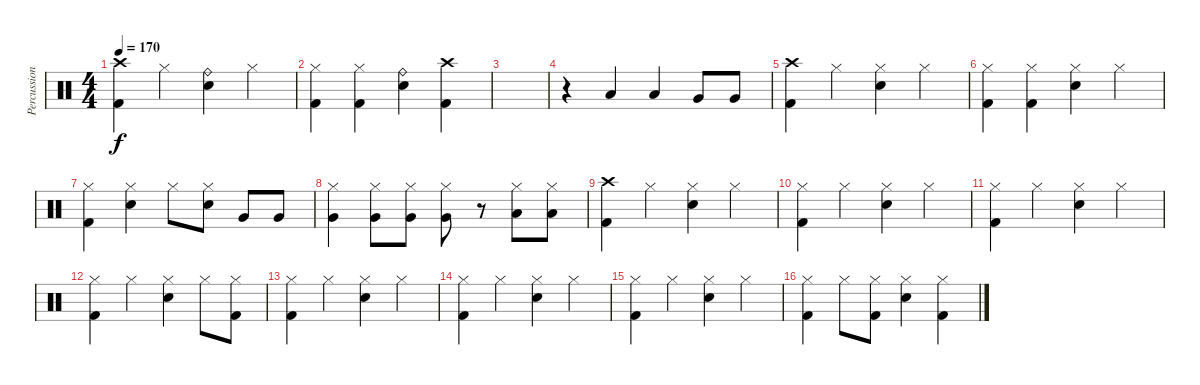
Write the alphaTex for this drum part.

\track ("Percussion" "Percussion") {instrument percussion}
\staff {score}
\articulation defaults
\ts (4 4)
\tempo 170
\clef neutral
\ks c
("Crash high (hit)" "Kick (hit) 2").4{dy f} "Hi-Hat (closed)".4 ("Ride (bell)" "Snare (hit) 2").4 "Hi-Hat (closed)".4 |
("Hi-Hat (closed)" "Kick (hit) 2").4 ("Hi-Hat (closed)" "Kick (hit) 2").4 ("Ride (bell)" "Snare (hit) 2").4 ("Crash high (hit)" "Kick (hit) 2").4 |
|
r.4 "Low Tom (hit)".4 "Low Tom (hit)".4 "Very Low Tom (hit)".8 "Very Low Tom (hit)".8 |
("Crash high (hit)" "Kick (hit) 2").4 "Hi-Hat (closed)".4 ("Hi-Hat (closed)" "Snare (hit) 2").4 "Hi-Hat (closed)".4 |
("Hi-Hat (closed)" "Kick (hit) 2").4 ("Hi-Hat (closed)" "Kick (hit) 2").4 ("Hi-Hat (closed)" "Snare (hit) 2").4 "Hi-Hat (closed)".4 |
("Hi-Hat (closed)" "Kick (hit) 2").4 ("Hi-Hat (closed)" "Snare (hit) 2").4 "Hi-Hat (closed)".8 ("Hi-Hat (closed)" "Snare (hit) 2").8 "Very Low Tom (hit)".8 "Very Low Tom (hit)".8 |
("Hi-Hat (closed)" "Very Low Tom (hit)").4 ("Hi-Hat (closed)" "Very Low Tom (hit)").8 ("Hi-Hat (closed)" "Very Low Tom (hit)").8 ("Hi-Hat (closed)" "Very Low Tom (hit)").8 r.8 ("Hi-Hat (closed)" "Low Tom (hit)").8 ("Hi-Hat (closed)" "Low Tom (hit)").8 |
("Crash high (hit)" "Kick (hit) 2").4 "Hi-Hat (closed)".4 ("Hi-Hat (closed)" "Snare (hit) 2").4 "Hi-Hat (closed)".4 |
("Hi-Hat (closed)" "Kick (hit) 2").4 "Hi-Hat (closed)".4 ("Hi-Hat (closed)" "Snare (hit) 2").4 "Hi-Hat (closed)".4 |
("Hi-Hat (closed)" "Kick (hit) 2").4 "Hi-Hat (closed)".4 ("Hi-Hat (closed)" "Snare (hit) 2").4 "Hi-Hat (closed)".4 |
("Hi-Hat (closed)" "Kick (hit) 2").4 "Hi-Hat (closed)".4 ("Hi-Hat (closed)" "Snare (hit) 2").4 "Hi-Hat (closed)".8 ("Hi-Hat (closed)" "Kick (hit) 2").8 |
("Hi-Hat (closed)" "Kick (hit) 2").4 "Hi-Hat (closed)".4 ("Hi-Hat (closed)" "Snare (hit) 2").4 "Hi-Hat (closed)".4 |
("Hi-Hat (closed)" "Kick (hit) 2").4 "Hi-Hat (closed)".4 ("Hi-Hat (closed)" "Snare (hit) 2").4 "Hi-Hat (closed)".4 |
("Hi-Hat (closed)" "Kick (hit) 2").4 "Hi-Hat (closed)".4 ("Hi-Hat (closed)" "Snare (hit) 2").4 "Hi-Hat (closed)".4 |
("Hi-Hat (closed)" "Kick (hit) 2").4 "Hi-Hat (closed)".8 ("Hi-Hat (closed)" "Kick (hit) 2").8 ("Hi-Hat (closed)" "Snare (hit) 2").4 ("Hi-Hat (closed)" "Kick (hit) 2").4
